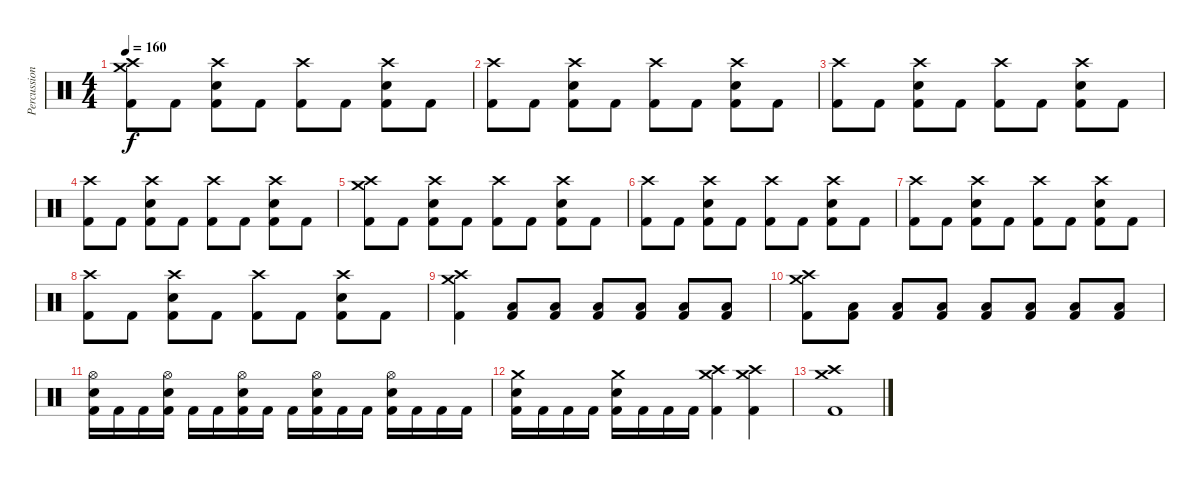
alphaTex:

\track ("Percussion" "Percussion") {instrument percussion}
\staff {score}
\articulation defaults
\ts (4 4)
\tempo 160
\clef neutral
\ks c
("Crash medium (hit)" "Crash high (hit)" "Kick (hit) 2").8{dy f} "Kick (hit) 2".8 ("Crash high (hit)" "Electric Snare (hit)" "Kick (hit) 2").8 "Kick (hit) 2".8 ("Crash high (hit)" "Kick (hit) 2").8 "Kick (hit) 2".8 ("Crash high (hit)" "Electric Snare (hit)" "Kick (hit) 2").8 "Kick (hit) 2".8 |
("Crash high (hit)" "Kick (hit) 2").8 "Kick (hit) 2".8 ("Crash high (hit)" "Electric Snare (hit)" "Kick (hit) 2").8 "Kick (hit) 2".8 ("Crash high (hit)" "Kick (hit) 2").8 "Kick (hit) 2".8 ("Crash high (hit)" "Electric Snare (hit)" "Kick (hit) 2").8 "Kick (hit) 2".8 |
("Crash high (hit)" "Kick (hit) 2").8 "Kick (hit) 2".8 ("Crash high (hit)" "Electric Snare (hit)" "Kick (hit) 2").8 "Kick (hit) 2".8 ("Crash high (hit)" "Kick (hit) 2").8 "Kick (hit) 2".8 ("Crash high (hit)" "Electric Snare (hit)" "Kick (hit) 2").8 "Kick (hit) 2".8 |
("Crash high (hit)" "Kick (hit) 2").8 "Kick (hit) 2".8 ("Crash high (hit)" "Electric Snare (hit)" "Kick (hit) 2").8 "Kick (hit) 2".8 ("Crash high (hit)" "Kick (hit) 2").8 "Kick (hit) 2".8 ("Crash high (hit)" "Electric Snare (hit)" "Kick (hit) 2").8 "Kick (hit) 2".8 |
("Crash medium (hit)" "Crash high (hit)" "Kick (hit) 2").8 "Kick (hit) 2".8 ("Crash high (hit)" "Electric Snare (hit)" "Kick (hit) 2").8 "Kick (hit) 2".8 ("Crash high (hit)" "Kick (hit) 2").8 "Kick (hit) 2".8 ("Crash high (hit)" "Electric Snare (hit)" "Kick (hit) 2").8 "Kick (hit) 2".8 |
("Crash high (hit)" "Kick (hit) 2").8 "Kick (hit) 2".8 ("Crash high (hit)" "Electric Snare (hit)" "Kick (hit) 2").8 "Kick (hit) 2".8 ("Crash high (hit)" "Kick (hit) 2").8 "Kick (hit) 2".8 ("Crash high (hit)" "Electric Snare (hit)" "Kick (hit) 2").8 "Kick (hit) 2".8 |
("Crash high (hit)" "Kick (hit) 2").8 "Kick (hit) 2".8 ("Crash high (hit)" "Electric Snare (hit)" "Kick (hit) 2").8 "Kick (hit) 2".8 ("Crash high (hit)" "Kick (hit) 2").8 "Kick (hit) 2".8 ("Crash high (hit)" "Electric Snare (hit)" "Kick (hit) 2").8 "Kick (hit) 2".8 |
("Crash high (hit)" "Kick (hit) 2").8 "Kick (hit) 2".8 ("Crash high (hit)" "Electric Snare (hit)" "Kick (hit) 2").8 "Kick (hit) 2".8 ("Crash high (hit)" "Kick (hit) 2").8 "Kick (hit) 2".8 ("Crash high (hit)" "Electric Snare (hit)" "Kick (hit) 2").8 "Kick (hit) 2".8 |
("Crash medium (hit)" "Crash high (hit)" "Kick (hit) 2").4 ("Low Floor Tom (hit)" "Kick (hit) 2").8 ("Low Floor Tom (hit)" "Kick (hit) 2").8 ("Low Floor Tom (hit)" "Kick (hit) 2").8 ("Low Floor Tom (hit)" "Kick (hit) 2").8 ("Low Floor Tom (hit)" "Kick (hit) 2").8 ("Low Floor Tom (hit)" "Kick (hit) 2").8 |
("Crash medium (hit)" "Crash high (hit)" "Kick (hit) 2").8 ("Low Floor Tom (hit)" "Kick (hit) 2").8 ("Low Floor Tom (hit)" "Kick (hit) 2").8 ("Low Floor Tom (hit)" "Kick (hit) 2").8 ("Low Floor Tom (hit)" "Kick (hit) 2").8 ("Low Floor Tom (hit)" "Kick (hit) 2").8 ("Low Floor Tom (hit)" "Kick (hit) 2").8 ("Low Floor Tom (hit)" "Kick (hit) 2").8 |
("Hi-Hat (open)" "Electric Snare (hit)" "Kick (hit) 2").16 "Kick (hit) 2".16 "Kick (hit) 2".16 ("Hi-Hat (open)" "Electric Snare (hit)" "Kick (hit) 2").16 "Kick (hit) 2".16 "Kick (hit) 2".16 ("Hi-Hat (open)" "Electric Snare (hit)" "Kick (hit) 2").16 "Kick (hit) 2".16 "Kick (hit) 2".16 ("Hi-Hat (open)" "Electric Snare (hit)" "Kick (hit) 2").16 "Kick (hit) 2".16 "Kick (hit) 2".16 ("Hi-Hat (open)" "Electric Snare (hit)" "Kick (hit) 2").16 "Kick (hit) 2".16 "Kick (hit) 2".16 "Kick (hit) 2".16 |
("Crash medium (hit)" "Electric Snare (hit)" "Kick (hit) 2").16 "Kick (hit) 2".16 "Kick (hit) 2".16 "Kick (hit) 2".16 ("Crash medium (hit)" "Electric Snare (hit)" "Kick (hit) 2").16 "Kick (hit) 2".16 "Kick (hit) 2".16 "Kick (hit) 2".16 ("Crash high (hit)" "Crash medium (hit)" "Kick (hit) 2").4 ("Crash high (hit)" "Crash medium (hit)" "Kick (hit) 2").4 |
("Crash high (hit)" "Crash medium (hit)" "Kick (hit) 2").1
